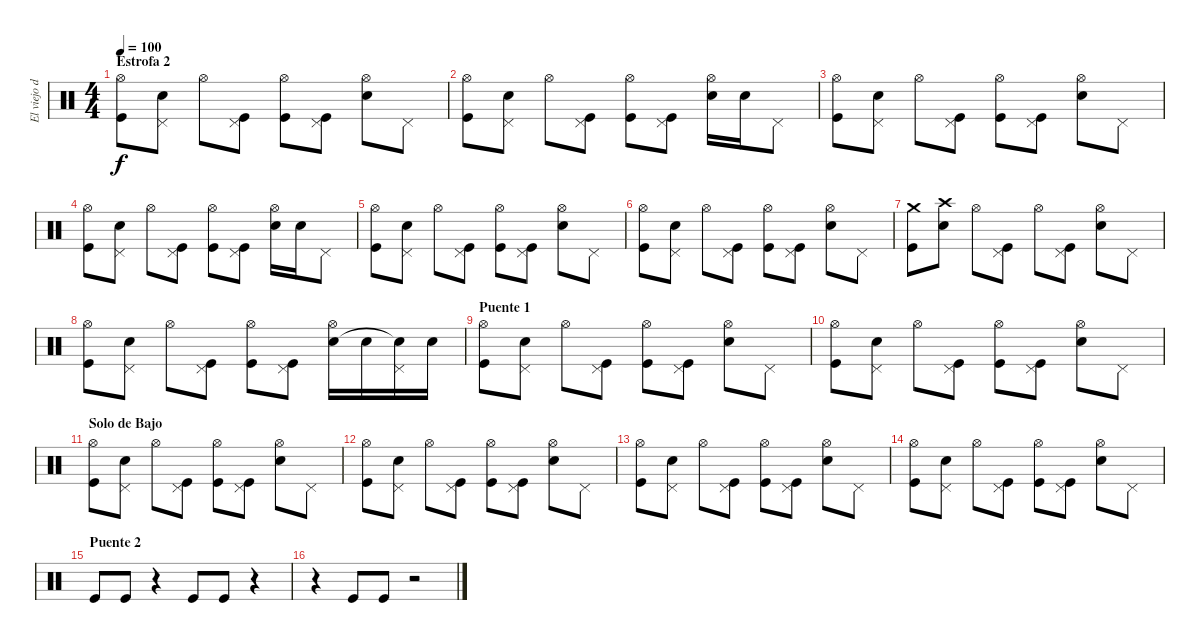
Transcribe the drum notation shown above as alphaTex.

\track ("El viejo del baston" "El viejo d") {instrument percussion}
\staff {score}
\articulation defaults
\ts (4 4)
\section ("" "Estrofa 2")
\tempo 100
\clef neutral
\ks c
("Hi-Hat (open)" "Kick (hit)").8{dy f} ("Pedal Hi-Hat (hit)" "Snare (hit) 2").8 "Hi-Hat (open)".8 ("Pedal Hi-Hat (hit)" "Kick (hit)").8 ("Hi-Hat (open)" "Kick (hit)").8 ("Pedal Hi-Hat (hit)" "Kick (hit)").8 ("Hi-Hat (open)" "Snare (hit) 2").8 "Pedal Hi-Hat (hit)".8 |
("Hi-Hat (open)" "Kick (hit)").8 ("Pedal Hi-Hat (hit)" "Snare (hit) 2").8 "Hi-Hat (open)".8 ("Pedal Hi-Hat (hit)" "Kick (hit)").8 ("Hi-Hat (open)" "Kick (hit)").8 ("Pedal Hi-Hat (hit)" "Kick (hit)").8 ("Hi-Hat (open)" "Snare (hit) 2").16 "Snare (hit) 2".16 "Pedal Hi-Hat (hit)".8 |
("Hi-Hat (open)" "Kick (hit)").8 ("Pedal Hi-Hat (hit)" "Snare (hit) 2").8 "Hi-Hat (open)".8 ("Pedal Hi-Hat (hit)" "Kick (hit)").8 ("Hi-Hat (open)" "Kick (hit)").8 ("Pedal Hi-Hat (hit)" "Kick (hit)").8 ("Hi-Hat (open)" "Snare (hit) 2").8 "Pedal Hi-Hat (hit)".8 |
("Hi-Hat (open)" "Kick (hit)").8 ("Pedal Hi-Hat (hit)" "Snare (hit) 2").8 "Hi-Hat (open)".8 ("Pedal Hi-Hat (hit)" "Kick (hit)").8 ("Hi-Hat (open)" "Kick (hit)").8 ("Pedal Hi-Hat (hit)" "Kick (hit)").8 ("Hi-Hat (open)" "Snare (hit) 2").16 "Snare (hit) 2".16 "Pedal Hi-Hat (hit)".8 |
("Hi-Hat (open)" "Kick (hit)").8 ("Pedal Hi-Hat (hit)" "Snare (hit) 2").8 "Hi-Hat (open)".8 ("Pedal Hi-Hat (hit)" "Kick (hit)").8 ("Hi-Hat (open)" "Kick (hit)").8 ("Pedal Hi-Hat (hit)" "Kick (hit)").8 ("Hi-Hat (open)" "Snare (hit) 2").8 "Pedal Hi-Hat (hit)".8 |
("Hi-Hat (open)" "Kick (hit)").8 ("Pedal Hi-Hat (hit)" "Snare (hit) 2").8 "Hi-Hat (open)".8 ("Pedal Hi-Hat (hit)" "Kick (hit)").8 ("Hi-Hat (open)" "Kick (hit)").8 ("Pedal Hi-Hat (hit)" "Kick (hit)").8 ("Hi-Hat (open)" "Snare (hit) 2").8 "Pedal Hi-Hat (hit)".8 |
("Crash medium (hit)" "Kick (hit)").8 ("Crash high (hit)" "Snare (hit) 2").8 "Hi-Hat (open)".8 ("Pedal Hi-Hat (hit)" "Kick (hit)").8 "Hi-Hat (open)".8 ("Pedal Hi-Hat (hit)" "Kick (hit)").8 ("Hi-Hat (open)" "Snare (hit) 2").8 "Pedal Hi-Hat (hit)".8 |
("Hi-Hat (open)" "Kick (hit)").8 ("Pedal Hi-Hat (hit)" "Snare (hit) 2").8 "Hi-Hat (open)".8 ("Pedal Hi-Hat (hit)" "Kick (hit)").8 ("Hi-Hat (open)" "Kick (hit)").8 ("Pedal Hi-Hat (hit)" "Kick (hit)").8 ("Hi-Hat (open)" "Snare (hit) 2").16 "Snare (hit) 2".16 ("Pedal Hi-Hat (hit)" "Snare (hit) 2"{t}).16 "Snare (hit) 2".16 |
\section ("" "Puente 1")
("Hi-Hat (open)" "Kick (hit)").8 ("Pedal Hi-Hat (hit)" "Snare (hit) 2").8 "Hi-Hat (open)".8 ("Pedal Hi-Hat (hit)" "Kick (hit)").8 ("Hi-Hat (open)" "Kick (hit)").8 ("Pedal Hi-Hat (hit)" "Kick (hit)").8 ("Hi-Hat (open)" "Snare (hit) 2").8 "Pedal Hi-Hat (hit)".8 |
("Hi-Hat (open)" "Kick (hit)").8 ("Pedal Hi-Hat (hit)" "Snare (hit) 2").8 "Hi-Hat (open)".8 ("Pedal Hi-Hat (hit)" "Kick (hit)").8 ("Hi-Hat (open)" "Kick (hit)").8 ("Pedal Hi-Hat (hit)" "Kick (hit)").8 ("Hi-Hat (open)" "Snare (hit) 2").8 "Pedal Hi-Hat (hit)".8 |
\section ("" "Solo de Bajo")
("Hi-Hat (open)" "Kick (hit)").8 ("Pedal Hi-Hat (hit)" "Snare (hit) 2").8 "Hi-Hat (open)".8 ("Pedal Hi-Hat (hit)" "Kick (hit)").8 ("Hi-Hat (open)" "Kick (hit)").8 ("Pedal Hi-Hat (hit)" "Kick (hit)").8 ("Hi-Hat (open)" "Snare (hit) 2").8 "Pedal Hi-Hat (hit)".8 |
("Hi-Hat (open)" "Kick (hit)").8 ("Pedal Hi-Hat (hit)" "Snare (hit) 2").8 "Hi-Hat (open)".8 ("Pedal Hi-Hat (hit)" "Kick (hit)").8 ("Hi-Hat (open)" "Kick (hit)").8 ("Pedal Hi-Hat (hit)" "Kick (hit)").8 ("Hi-Hat (open)" "Snare (hit) 2").8 "Pedal Hi-Hat (hit)".8 |
("Hi-Hat (open)" "Kick (hit)").8 ("Pedal Hi-Hat (hit)" "Snare (hit) 2").8 "Hi-Hat (open)".8 ("Pedal Hi-Hat (hit)" "Kick (hit)").8 ("Hi-Hat (open)" "Kick (hit)").8 ("Pedal Hi-Hat (hit)" "Kick (hit)").8 ("Hi-Hat (open)" "Snare (hit) 2").8 "Pedal Hi-Hat (hit)".8 |
("Hi-Hat (open)" "Kick (hit)").8 ("Pedal Hi-Hat (hit)" "Snare (hit) 2").8 "Hi-Hat (open)".8 ("Pedal Hi-Hat (hit)" "Kick (hit)").8 ("Hi-Hat (open)" "Kick (hit)").8 ("Pedal Hi-Hat (hit)" "Kick (hit)").8 ("Hi-Hat (open)" "Snare (hit) 2").8 "Pedal Hi-Hat (hit)".8 |
\section ("" "Puente 2")
"Kick (hit)".8 "Kick (hit)".8 r.4 "Kick (hit)".8 "Kick (hit)".8 r.4 |
r.4 "Kick (hit)".8 "Kick (hit)".8 r.2
